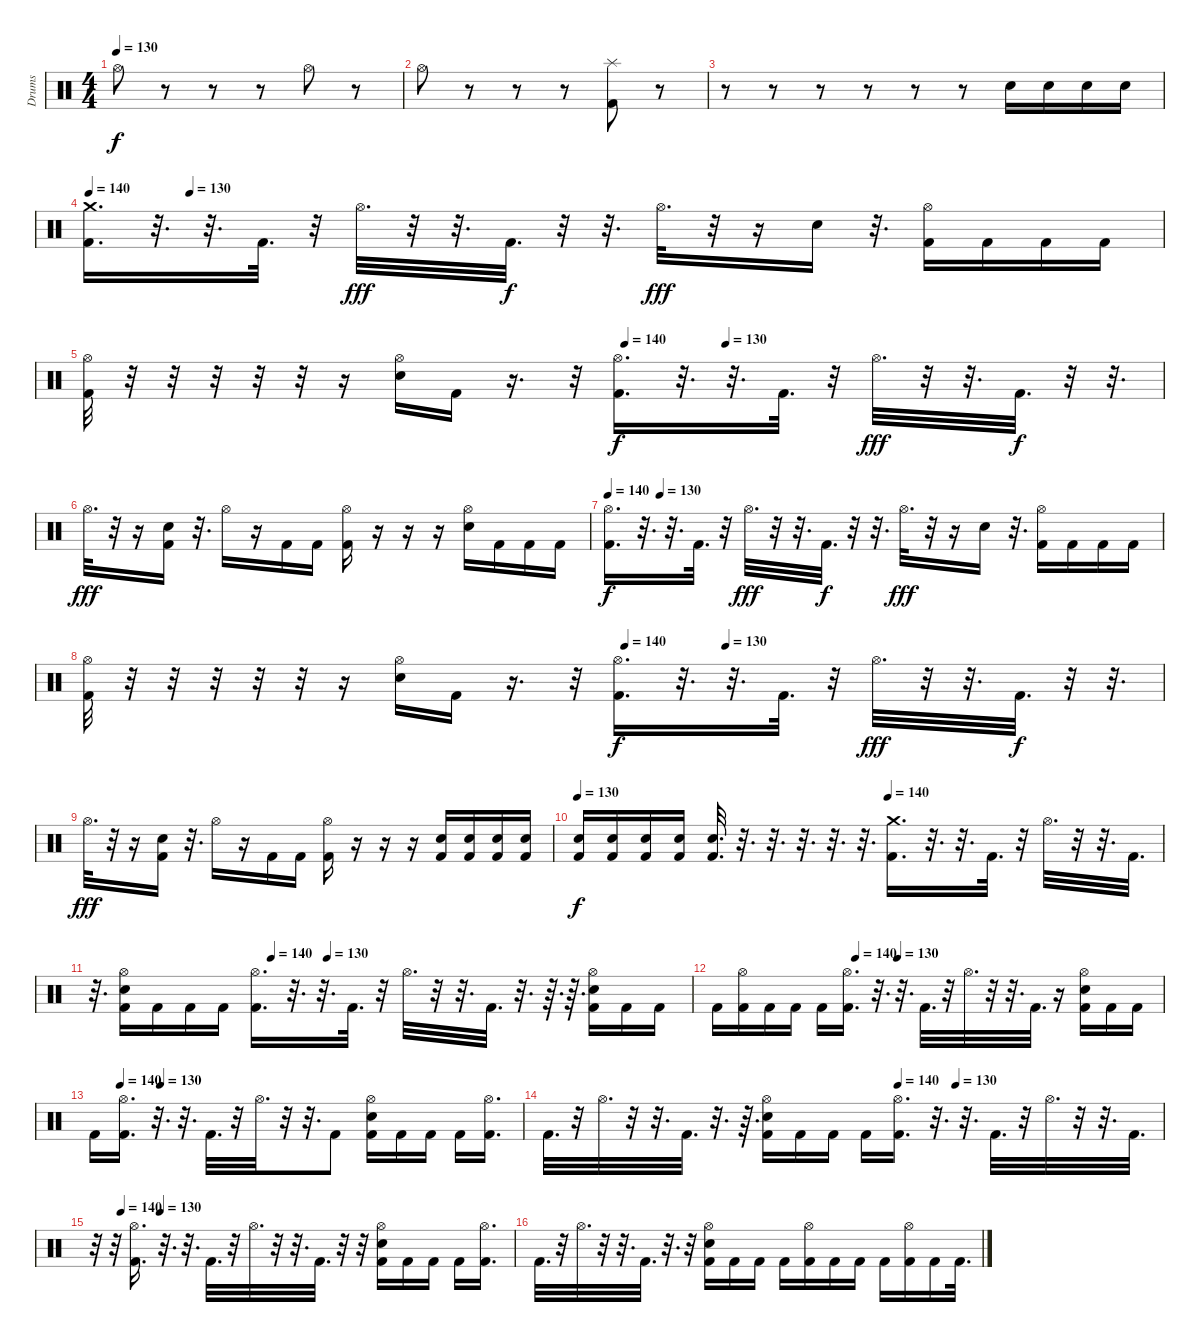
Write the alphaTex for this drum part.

\track ("Drums" "Drums") {instrument percussion}
\staff {score}
\articulation defaults
\ts (4 4)
\tempo 130
\clef neutral
\ks c "Hi-Hat (open)".8{dy f}
r.8 r.8 r.8 "Hi-Hat (open)".8 r.8 |
"Hi-Hat (open)".8 r.8 r.8 r.8 ("Splash (hit)" "Kick (hit) 2").8 r.8 |
r.8 r.8 r.8 r.8 r.8 r.8 "Snare (hit) 2".16 "Snare (hit) 2".16 "Snare (hit) 2".16 "Snare (hit) 2".16 |
\tempo 140
\tempo (130 0.09375)
("Crash medium (hit)" "Kick (hit) 2").16{d} r.32{d} r.32{d} "Kick (hit) 2".32{d} r.32 "Hi-Hat (open)".32{d dy fff} r.32 r.32{d} "Kick (hit) 2".32{d dy f} r.32 r.32{d} "Hi-Hat (open)".32{d dy fff} r.32 r.16 "Snare (hit) 2".16 r.32{d} ("Hi-Hat (open)" "Kick (hit) 2").16 "Kick (hit) 2".16 "Kick (hit) 2".16 "Kick (hit) 2".16 |
\tempo (140 0.5)
\tempo (130 0.59375)
("Hi-Hat (open)" "Kick (hit) 2").32 r.32 r.32 r.32 r.32 r.32 r.16 ("Hi-Hat (open)" "Snare (hit) 2").16 "Kick (hit) 2".16 r.16{d} r.32 ("Hi-Hat (open)" "Kick (hit) 2").16{d dy f} r.32{d} r.32{d} "Kick (hit) 2".32{d} r.32 "Hi-Hat (open)".32{d dy fff} r.32 r.32{d} "Kick (hit) 2".32{d dy f} r.32 r.32{d} |
"Hi-Hat (open)".32{d dy fff} r.32 r.16 ("Snare (hit) 2" "Kick (hit) 2").16 r.32{d} "Hi-Hat (open)".16 r.16 "Kick (hit) 2".16 "Kick (hit) 2".16 ("Hi-Hat (open)" "Kick (hit) 2").16 r.16 r.16 r.16 ("Hi-Hat (open)" "Snare (hit) 2").16 "Kick (hit) 2".16 "Kick (hit) 2".16 "Kick (hit) 2".16 |
\tempo 140
\tempo (130 0.09375)
("Hi-Hat (open)" "Kick (hit) 2").16{d dy f} r.32{d} r.32{d} "Kick (hit) 2".32{d} r.32 "Hi-Hat (open)".32{d dy fff} r.32 r.32{d} "Kick (hit) 2".32{d dy f} r.32 r.32{d} "Hi-Hat (open)".32{d dy fff} r.32 r.16 "Snare (hit) 2".16 r.32{d} ("Hi-Hat (open)" "Kick (hit) 2").16 "Kick (hit) 2".16 "Kick (hit) 2".16 "Kick (hit) 2".16 |
\tempo (140 0.5)
\tempo (130 0.59375)
("Hi-Hat (open)" "Kick (hit) 2").32 r.32 r.32 r.32 r.32 r.32 r.16 ("Hi-Hat (open)" "Snare (hit) 2").16 "Kick (hit) 2".16 r.16{d} r.32 ("Hi-Hat (open)" "Kick (hit) 2").16{d dy f} r.32{d} r.32{d} "Kick (hit) 2".32{d} r.32 "Hi-Hat (open)".32{d dy fff} r.32 r.32{d} "Kick (hit) 2".32{d dy f} r.32 r.32{d} |
"Hi-Hat (open)".32{d dy fff} r.32 r.16 ("Snare (hit) 2" "Kick (hit) 2").16 r.32{d} "Hi-Hat (open)".16 r.16 "Kick (hit) 2".16 "Kick (hit) 2".16 ("Hi-Hat (open)" "Kick (hit) 2").16 r.16 r.16 r.16 ("Snare (hit) 2" "Kick (hit) 2").16 ("Snare (hit) 2" "Kick (hit) 2").16 ("Snare (hit) 2" "Kick (hit) 2").16 ("Snare (hit) 2" "Kick (hit) 2").16 |
\tempo 130
\tempo (140 0.53125)
("Snare (hit) 2" "Kick (hit) 2").16{dy f} ("Snare (hit) 2" "Kick (hit) 2").16 ("Snare (hit) 2" "Kick (hit) 2").16 ("Snare (hit) 2" "Kick (hit) 2").16 ("Snare (hit) 2" "Kick (hit) 2").32{d} r.32{d} r.32{d} r.32{d} r.32{d} r.32{d} ("Crash medium (hit)" "Kick (hit) 2").16{d} r.32{d} r.32{d} "Kick (hit) 2".32{d} r.32 "Hi-Hat (open)".32{d} r.32 r.32{d} "Kick (hit) 2".32{d} |
\tempo (140 0.296875)
\tempo (130 0.390625)
r.32{d} ("Hi-Hat (open)" "Snare (hit) 2" "Kick (hit) 2").16 "Kick (hit) 2".16 "Kick (hit) 2".16 "Kick (hit) 2".16 ("Hi-Hat (open)" "Kick (hit) 2").16{d} r.32{d} r.32{d} "Kick (hit) 2".32{d} r.32 "Hi-Hat (open)".32{d} r.32 r.32{d} "Kick (hit) 2".32{d} r.32{d} r.64{d} r.64{d} ("Hi-Hat (open)" "Snare (hit) 2" "Kick (hit) 2").16 "Kick (hit) 2".16 "Kick (hit) 2".16 |
\tempo (140 0.3125)
\tempo (130 0.40625)
"Kick (hit) 2".16 ("Hi-Hat (open)" "Kick (hit) 2").16 "Kick (hit) 2".16 "Kick (hit) 2".16 "Kick (hit) 2".16 ("Hi-Hat (open)" "Kick (hit) 2").16{d} r.32{d} r.32{d} "Kick (hit) 2".32{d} r.32 "Hi-Hat (open)".32{d} r.32 r.32{d} "Kick (hit) 2".32{d} r.16 ("Hi-Hat (open)" "Snare (hit) 2" "Kick (hit) 2").16 "Kick (hit) 2".16 "Kick (hit) 2".16 |
\tempo (140 0.0625)
\tempo (130 0.15625)
"Kick (hit) 2".16 ("Hi-Hat (open)" "Kick (hit) 2").16{d} r.32{d} r.32{d} "Kick (hit) 2".32{d} r.32 "Hi-Hat (open)".32{d} r.32 r.32{d} "Kick (hit) 2".8 ("Hi-Hat (open)" "Snare (hit) 2" "Kick (hit) 2").16 "Kick (hit) 2".16 "Kick (hit) 2".16 "Kick (hit) 2".16 ("Hi-Hat (open)" "Kick (hit) 2").16{d} |
\tempo (140 0.5703125)
\tempo (130 0.6640625)
"Kick (hit) 2".32{d} r.32 "Hi-Hat (open)".32{d} r.32 r.32{d} "Kick (hit) 2".32{d} r.32{d} r.64{d} ("Hi-Hat (open)" "Snare (hit) 2" "Kick (hit) 2").16 "Kick (hit) 2".16 "Kick (hit) 2".16 "Kick (hit) 2".16 ("Hi-Hat (open)" "Kick (hit) 2").16{d} r.32{d} r.32{d} "Kick (hit) 2".32{d} r.32 "Hi-Hat (open)".32{d} r.32 r.32{d} "Kick (hit) 2".32{d} |
\tempo (140 0.0625)
\tempo (130 0.15625)
r.32 r.32 ("Hi-Hat (open)" "Kick (hit) 2").16{d} r.32{d} r.32{d} "Kick (hit) 2".32{d} r.32 "Hi-Hat (open)".32{d} r.32 r.32{d} "Kick (hit) 2".32{d} r.32 r.32 ("Hi-Hat (open)" "Snare (hit) 2" "Kick (hit) 2").16 "Kick (hit) 2".16 "Kick (hit) 2".16 "Kick (hit) 2".16 ("Hi-Hat (open)" "Kick (hit) 2").16{d} |
"Kick (hit) 2".32{d} r.32 "Hi-Hat (open)".32{d} r.32 r.32{d} "Kick (hit) 2".32{d} r.32{d} r.32 ("Hi-Hat (open)" "Snare (hit) 2" "Kick (hit) 2").16 "Kick (hit) 2".16 "Kick (hit) 2".16 "Kick (hit) 2".16 ("Hi-Hat (open)" "Kick (hit) 2").16 "Kick (hit) 2".16 "Kick (hit) 2".16 "Kick (hit) 2".16 ("Hi-Hat (open)" "Kick (hit) 2").16 "Kick (hit) 2".16 "Kick (hit) 2".32{d}
